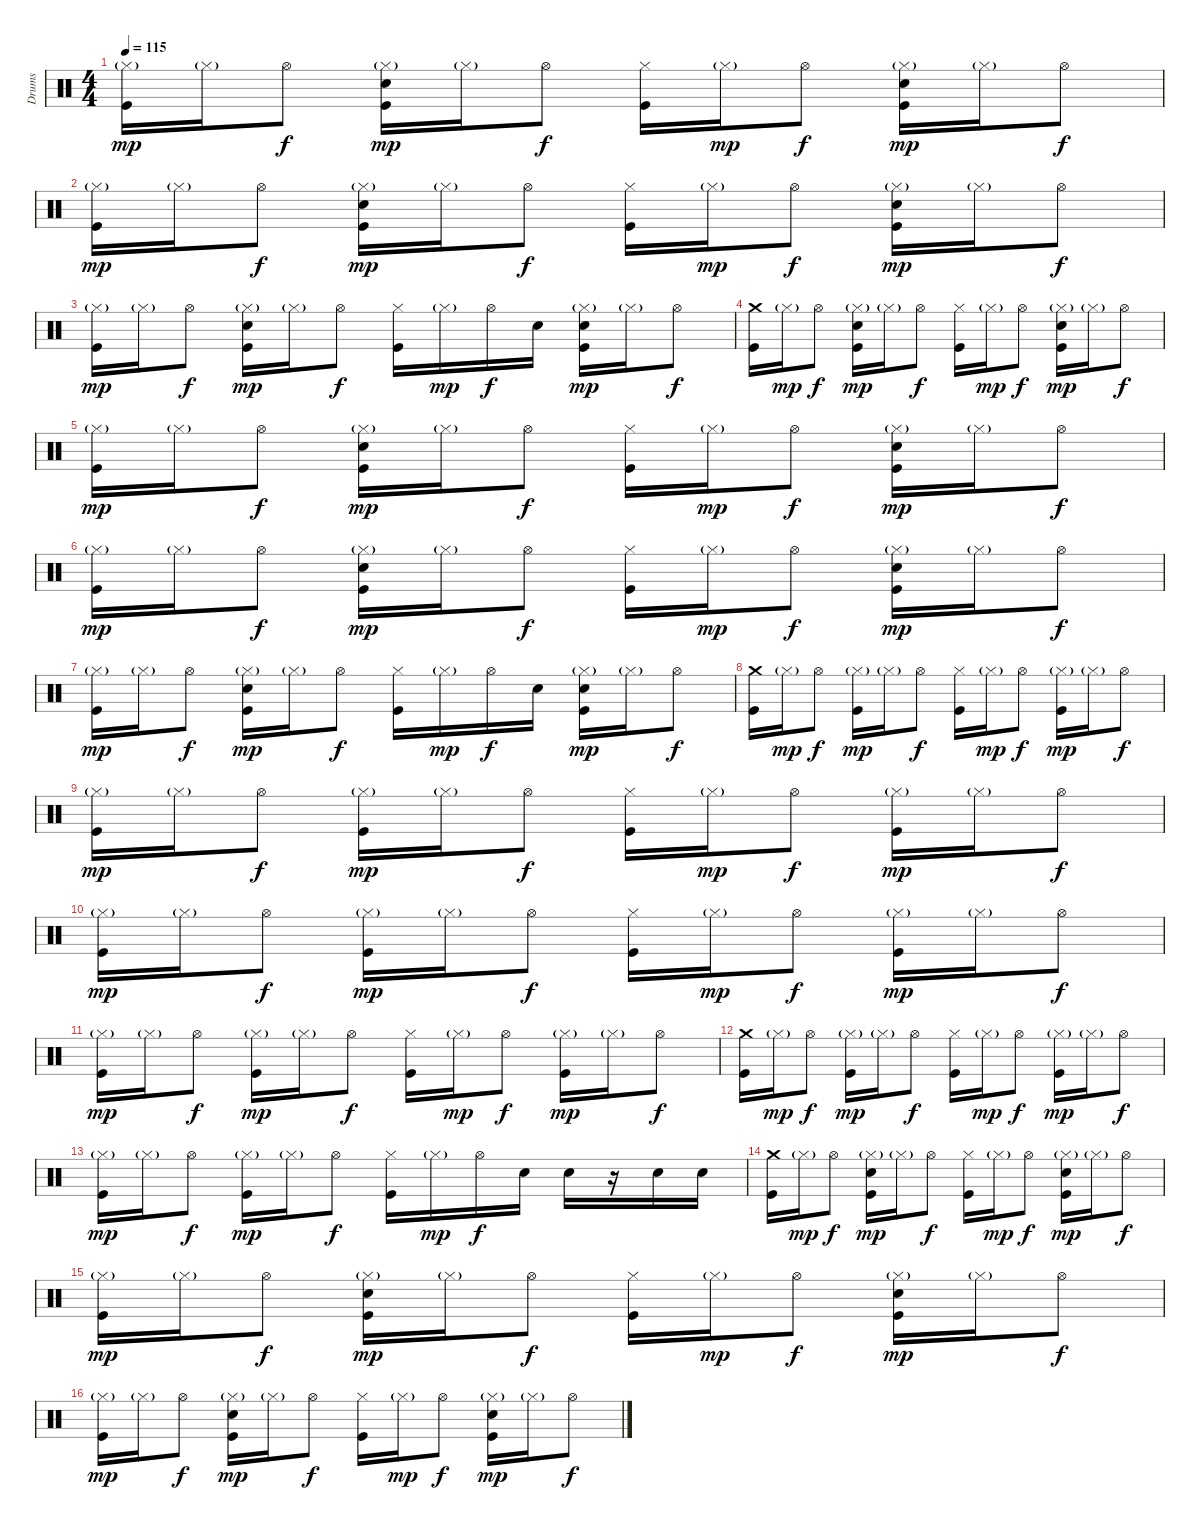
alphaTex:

\track ("Drums" "Drums") {instrument percussion}
\staff {score}
\articulation defaults
\ts (4 4)
\tempo 115
\clef neutral
\ks c
("Hi-Hat (closed)"{g} "Kick (hit)").16{dy mp} "Hi-Hat (closed)"{g}.16 "Hi-Hat (open)".8{dy f} ("Hi-Hat (closed)"{g} "Electric Snare (hit)" "Kick (hit)").16{dy mp} "Hi-Hat (closed)"{g}.16 "Hi-Hat (open)".8{dy f} ("Hi-Hat (closed)" "Kick (hit)").16 "Hi-Hat (closed)"{g}.16{dy mp} "Hi-Hat (open)".8{dy f} ("Hi-Hat (closed)"{g} "Electric Snare (hit)" "Kick (hit)").16{dy mp} "Hi-Hat (closed)"{g}.16 "Hi-Hat (open)".8{dy f} |
("Hi-Hat (closed)"{g} "Kick (hit)").16{dy mp} "Hi-Hat (closed)"{g}.16 "Hi-Hat (open)".8{dy f} ("Hi-Hat (closed)"{g} "Electric Snare (hit)" "Kick (hit)").16{dy mp} "Hi-Hat (closed)"{g}.16 "Hi-Hat (open)".8{dy f} ("Hi-Hat (closed)" "Kick (hit)").16 "Hi-Hat (closed)"{g}.16{dy mp} "Hi-Hat (open)".8{dy f} ("Hi-Hat (closed)"{g} "Electric Snare (hit)" "Kick (hit)").16{dy mp} "Hi-Hat (closed)"{g}.16 "Hi-Hat (open)".8{dy f} |
("Hi-Hat (closed)"{g} "Kick (hit)").16{dy mp} "Hi-Hat (closed)"{g}.16 "Hi-Hat (open)".8{dy f} ("Hi-Hat (closed)"{g} "Electric Snare (hit)" "Kick (hit)").16{dy mp} "Hi-Hat (closed)"{g}.16 "Hi-Hat (open)".8{dy f} ("Hi-Hat (closed)" "Kick (hit)").16 "Hi-Hat (closed)"{g}.16{dy mp} "Hi-Hat (open)".16{dy f} "Electric Snare (hit)".16 ("Hi-Hat (closed)"{g} "Electric Snare (hit)" "Kick (hit)").16{dy mp} "Hi-Hat (closed)"{g}.16 "Hi-Hat (open)".8{dy f} |
("Crash medium (hit)" "Kick (hit)").16 "Hi-Hat (closed)"{g}.16{dy mp} "Hi-Hat (open)".8{dy f} ("Hi-Hat (closed)"{g} "Electric Snare (hit)" "Kick (hit)").16{dy mp} "Hi-Hat (closed)"{g}.16 "Hi-Hat (open)".8{dy f} ("Hi-Hat (closed)" "Kick (hit)").16 "Hi-Hat (closed)"{g}.16{dy mp} "Hi-Hat (open)".8{dy f} ("Hi-Hat (closed)"{g} "Electric Snare (hit)" "Kick (hit)").16{dy mp} "Hi-Hat (closed)"{g}.16 "Hi-Hat (open)".8{dy f} |
("Hi-Hat (closed)"{g} "Kick (hit)").16{dy mp} "Hi-Hat (closed)"{g}.16 "Hi-Hat (open)".8{dy f} ("Hi-Hat (closed)"{g} "Electric Snare (hit)" "Kick (hit)").16{dy mp} "Hi-Hat (closed)"{g}.16 "Hi-Hat (open)".8{dy f} ("Hi-Hat (closed)" "Kick (hit)").16 "Hi-Hat (closed)"{g}.16{dy mp} "Hi-Hat (open)".8{dy f} ("Hi-Hat (closed)"{g} "Electric Snare (hit)" "Kick (hit)").16{dy mp} "Hi-Hat (closed)"{g}.16 "Hi-Hat (open)".8{dy f} |
("Hi-Hat (closed)"{g} "Kick (hit)").16{dy mp} "Hi-Hat (closed)"{g}.16 "Hi-Hat (open)".8{dy f} ("Hi-Hat (closed)"{g} "Electric Snare (hit)" "Kick (hit)").16{dy mp} "Hi-Hat (closed)"{g}.16 "Hi-Hat (open)".8{dy f} ("Hi-Hat (closed)" "Kick (hit)").16 "Hi-Hat (closed)"{g}.16{dy mp} "Hi-Hat (open)".8{dy f} ("Hi-Hat (closed)"{g} "Electric Snare (hit)" "Kick (hit)").16{dy mp} "Hi-Hat (closed)"{g}.16 "Hi-Hat (open)".8{dy f} |
("Hi-Hat (closed)"{g} "Kick (hit)").16{dy mp} "Hi-Hat (closed)"{g}.16 "Hi-Hat (open)".8{dy f} ("Hi-Hat (closed)"{g} "Electric Snare (hit)" "Kick (hit)").16{dy mp} "Hi-Hat (closed)"{g}.16 "Hi-Hat (open)".8{dy f} ("Hi-Hat (closed)" "Kick (hit)").16 "Hi-Hat (closed)"{g}.16{dy mp} "Hi-Hat (open)".16{dy f} "Electric Snare (hit)".16 ("Hi-Hat (closed)"{g} "Electric Snare (hit)" "Kick (hit)").16{dy mp} "Hi-Hat (closed)"{g}.16 "Hi-Hat (open)".8{dy f} |
("Crash medium (hit)" "Kick (hit)").16 "Hi-Hat (closed)"{g}.16{dy mp} "Hi-Hat (open)".8{dy f} ("Hi-Hat (closed)"{g} "Kick (hit)").16{dy mp} "Hi-Hat (closed)"{g}.16 "Hi-Hat (open)".8{dy f} ("Hi-Hat (closed)" "Kick (hit)").16 "Hi-Hat (closed)"{g}.16{dy mp} "Hi-Hat (open)".8{dy f} ("Hi-Hat (closed)"{g} "Kick (hit)").16{dy mp} "Hi-Hat (closed)"{g}.16 "Hi-Hat (open)".8{dy f} |
("Hi-Hat (closed)"{g} "Kick (hit)").16{dy mp} "Hi-Hat (closed)"{g}.16 "Hi-Hat (open)".8{dy f} ("Hi-Hat (closed)"{g} "Kick (hit)").16{dy mp} "Hi-Hat (closed)"{g}.16 "Hi-Hat (open)".8{dy f} ("Hi-Hat (closed)" "Kick (hit)").16 "Hi-Hat (closed)"{g}.16{dy mp} "Hi-Hat (open)".8{dy f} ("Hi-Hat (closed)"{g} "Kick (hit)").16{dy mp} "Hi-Hat (closed)"{g}.16 "Hi-Hat (open)".8{dy f} |
("Hi-Hat (closed)"{g} "Kick (hit)").16{dy mp} "Hi-Hat (closed)"{g}.16 "Hi-Hat (open)".8{dy f} ("Hi-Hat (closed)"{g} "Kick (hit)").16{dy mp} "Hi-Hat (closed)"{g}.16 "Hi-Hat (open)".8{dy f} ("Hi-Hat (closed)" "Kick (hit)").16 "Hi-Hat (closed)"{g}.16{dy mp} "Hi-Hat (open)".8{dy f} ("Hi-Hat (closed)"{g} "Kick (hit)").16{dy mp} "Hi-Hat (closed)"{g}.16 "Hi-Hat (open)".8{dy f} |
("Hi-Hat (closed)"{g} "Kick (hit)").16{dy mp} "Hi-Hat (closed)"{g}.16 "Hi-Hat (open)".8{dy f} ("Hi-Hat (closed)"{g} "Kick (hit)").16{dy mp} "Hi-Hat (closed)"{g}.16 "Hi-Hat (open)".8{dy f} ("Hi-Hat (closed)" "Kick (hit)").16 "Hi-Hat (closed)"{g}.16{dy mp} "Hi-Hat (open)".8{dy f} ("Hi-Hat (closed)"{g} "Kick (hit)").16{dy mp} "Hi-Hat (closed)"{g}.16 "Hi-Hat (open)".8{dy f} |
("Crash medium (hit)" "Kick (hit)").16 "Hi-Hat (closed)"{g}.16{dy mp} "Hi-Hat (open)".8{dy f} ("Hi-Hat (closed)"{g} "Kick (hit)").16{dy mp} "Hi-Hat (closed)"{g}.16 "Hi-Hat (open)".8{dy f} ("Hi-Hat (closed)" "Kick (hit)").16 "Hi-Hat (closed)"{g}.16{dy mp} "Hi-Hat (open)".8{dy f} ("Hi-Hat (closed)"{g} "Kick (hit)").16{dy mp} "Hi-Hat (closed)"{g}.16 "Hi-Hat (open)".8{dy f} |
("Hi-Hat (closed)"{g} "Kick (hit)").16{dy mp} "Hi-Hat (closed)"{g}.16 "Hi-Hat (open)".8{dy f} ("Hi-Hat (closed)"{g} "Kick (hit)").16{dy mp} "Hi-Hat (closed)"{g}.16 "Hi-Hat (open)".8{dy f} ("Hi-Hat (closed)" "Kick (hit)").16 "Hi-Hat (closed)"{g}.16{dy mp} "Hi-Hat (open)".16{dy f} "Electric Snare (hit)".16 "Electric Snare (hit)".16 r.16 "Electric Snare (hit)".16 "Electric Snare (hit)".16 |
("Crash medium (hit)" "Kick (hit)").16 "Hi-Hat (closed)"{g}.16{dy mp} "Hi-Hat (open)".8{dy f} ("Hi-Hat (closed)"{g} "Electric Snare (hit)" "Kick (hit)").16{dy mp} "Hi-Hat (closed)"{g}.16 "Hi-Hat (open)".8{dy f} ("Hi-Hat (closed)" "Kick (hit)").16 "Hi-Hat (closed)"{g}.16{dy mp} "Hi-Hat (open)".8{dy f} ("Hi-Hat (closed)"{g} "Electric Snare (hit)" "Kick (hit)").16{dy mp} "Hi-Hat (closed)"{g}.16 "Hi-Hat (open)".8{dy f} |
("Hi-Hat (closed)"{g} "Kick (hit)").16{dy mp} "Hi-Hat (closed)"{g}.16 "Hi-Hat (open)".8{dy f} ("Hi-Hat (closed)"{g} "Electric Snare (hit)" "Kick (hit)").16{dy mp} "Hi-Hat (closed)"{g}.16 "Hi-Hat (open)".8{dy f} ("Hi-Hat (closed)" "Kick (hit)").16 "Hi-Hat (closed)"{g}.16{dy mp} "Hi-Hat (open)".8{dy f} ("Hi-Hat (closed)"{g} "Electric Snare (hit)" "Kick (hit)").16{dy mp} "Hi-Hat (closed)"{g}.16 "Hi-Hat (open)".8{dy f} |
("Hi-Hat (closed)"{g} "Kick (hit)").16{dy mp} "Hi-Hat (closed)"{g}.16 "Hi-Hat (open)".8{dy f} ("Hi-Hat (closed)"{g} "Electric Snare (hit)" "Kick (hit)").16{dy mp} "Hi-Hat (closed)"{g}.16 "Hi-Hat (open)".8{dy f} ("Hi-Hat (closed)" "Kick (hit)").16 "Hi-Hat (closed)"{g}.16{dy mp} "Hi-Hat (open)".8{dy f} ("Hi-Hat (closed)"{g} "Electric Snare (hit)" "Kick (hit)").16{dy mp} "Hi-Hat (closed)"{g}.16 "Hi-Hat (open)".8{dy f}
